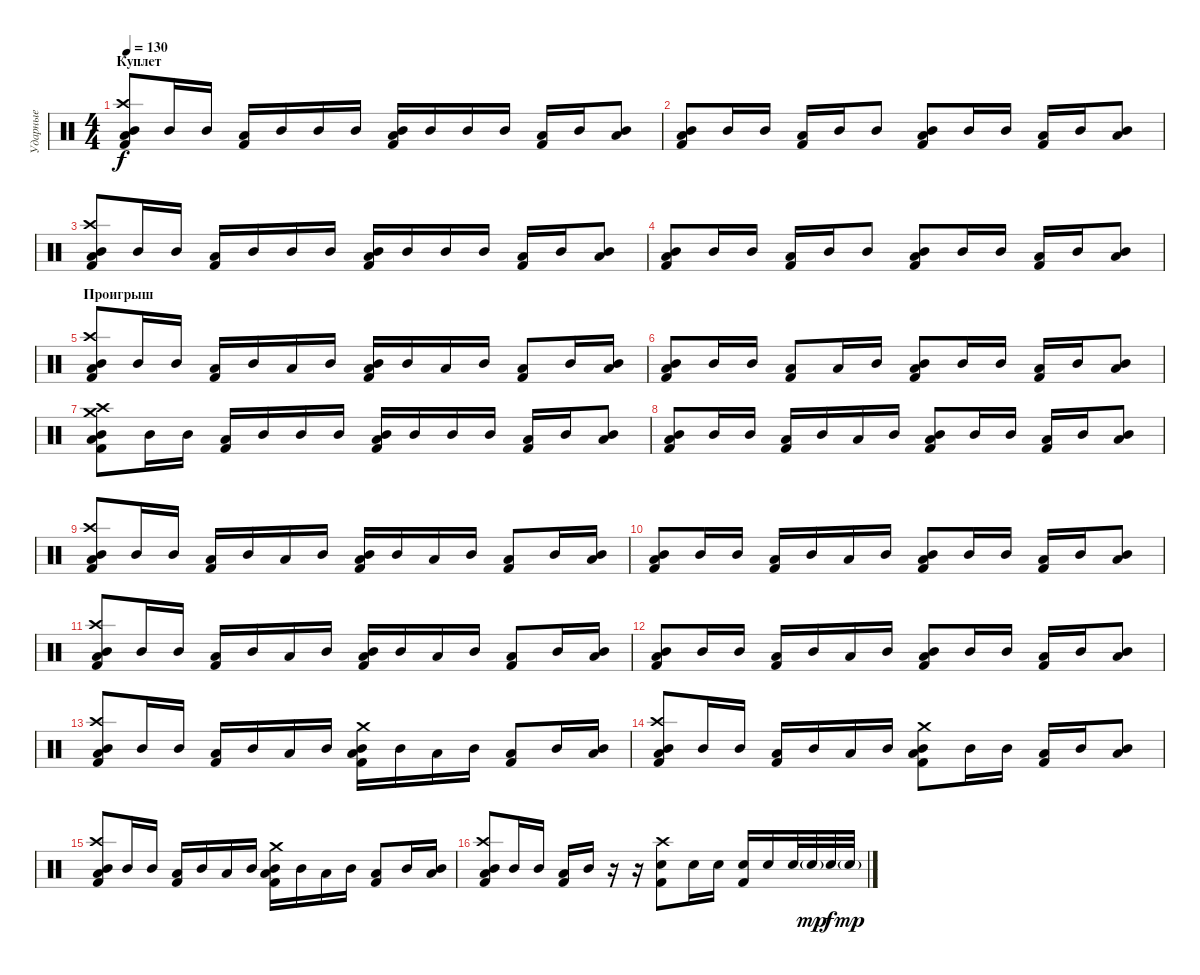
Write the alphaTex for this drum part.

\track ("Ударные" "Ударные") {instrument percussion}
\staff {score}
\articulation defaults
\ts (4 4)
\section ("" "Куплет")
\tempo 130
\clef neutral
\ks c
("Low Tom (hit)" "Mid Tom (hit)" "Crash high (hit)" "Kick (hit) 2").8{dy f volume 14} "Mid Tom (hit)".16 "Mid Tom (hit)".16 ("Low Tom (hit)" "Kick (hit) 2").16 "Mid Tom (hit)".16 "Mid Tom (hit)".16 "Mid Tom (hit)".16 ("Low Tom (hit)" "Mid Tom (hit)" "Kick (hit) 2").16 "Mid Tom (hit)".16 "Mid Tom (hit)".16 "Mid Tom (hit)".16 ("Low Tom (hit)" "Kick (hit) 2").16 "Mid Tom (hit)".16 ("Low Tom (hit)" "Mid Tom (hit)").8 |
("Low Tom (hit)" "Mid Tom (hit)" "Kick (hit) 2").8 "Mid Tom (hit)".16 "Mid Tom (hit)".16 ("Low Tom (hit)" "Kick (hit) 2").16 "Mid Tom (hit)".16 "Mid Tom (hit)".8 ("Low Tom (hit)" "Mid Tom (hit)" "Kick (hit) 2").8 "Mid Tom (hit)".16 "Mid Tom (hit)".16 ("Low Tom (hit)" "Kick (hit) 2").16 "Mid Tom (hit)".16 ("Low Tom (hit)" "Mid Tom (hit)").8 |
("Low Tom (hit)" "Mid Tom (hit)" "Crash high (hit)" "Kick (hit) 2").8{volume 13} "Mid Tom (hit)".16 "Mid Tom (hit)".16 ("Low Tom (hit)" "Kick (hit) 2").16 "Mid Tom (hit)".16 "Mid Tom (hit)".16 "Mid Tom (hit)".16 ("Low Tom (hit)" "Mid Tom (hit)" "Kick (hit) 2").16 "Mid Tom (hit)".16 "Mid Tom (hit)".16 "Mid Tom (hit)".16 ("Low Tom (hit)" "Kick (hit) 2").16 "Mid Tom (hit)".16 ("Low Tom (hit)" "Mid Tom (hit)").8 |
("Low Tom (hit)" "Mid Tom (hit)" "Kick (hit) 2").8 "Mid Tom (hit)".16 "Mid Tom (hit)".16 ("Low Tom (hit)" "Kick (hit) 2").16 "Mid Tom (hit)".16 "Mid Tom (hit)".8 ("Low Tom (hit)" "Mid Tom (hit)" "Kick (hit) 2").8 "Mid Tom (hit)".16 "Mid Tom (hit)".16 ("Low Tom (hit)" "Kick (hit) 2").16 "Mid Tom (hit)".16 ("Low Tom (hit)" "Mid Tom (hit)").8 |
\section ("" "Проигрыш")
("Low Tom (hit)" "Mid Tom (hit)" "Crash high (hit)" "Kick (hit) 2").8{volume 14} "Mid Tom (hit)".16 "Mid Tom (hit)".16 ("Low Tom (hit)" "Kick (hit) 2").16 "Mid Tom (hit)".16 "Low Tom (hit)".16 "Mid Tom (hit)".16 ("Low Tom (hit)" "Mid Tom (hit)" "Kick (hit) 2").16 "Mid Tom (hit)".16 "Low Tom (hit)".16 "Mid Tom (hit)".16 ("Low Tom (hit)" "Kick (hit) 2").8 "Mid Tom (hit)".16 ("Low Tom (hit)" "Mid Tom (hit)").16 |
("Low Tom (hit)" "Mid Tom (hit)" "Kick (hit) 2").8 "Mid Tom (hit)".16 "Mid Tom (hit)".16 ("Low Tom (hit)" "Kick (hit) 2").8 "Low Tom (hit)".16 "Mid Tom (hit)".16 ("Low Tom (hit)" "Mid Tom (hit)" "Kick (hit) 2").8 "Mid Tom (hit)".16 "Mid Tom (hit)".16 ("Low Tom (hit)" "Kick (hit) 2").16 "Mid Tom (hit)".16 ("Low Tom (hit)" "Mid Tom (hit)").8 |
("Low Tom (hit)" "Mid Tom (hit)" "Crash high (hit)" "Crash medium (hit)" "Kick (hit) 2").8{volume 14} "Mid Tom (hit)".16 "Mid Tom (hit)".16 ("Low Tom (hit)" "Kick (hit) 2").16 "Mid Tom (hit)".16 "Mid Tom (hit)".16 "Mid Tom (hit)".16 ("Low Tom (hit)" "Mid Tom (hit)" "Kick (hit) 2").16 "Mid Tom (hit)".16 "Mid Tom (hit)".16 "Mid Tom (hit)".16 ("Low Tom (hit)" "Kick (hit) 2").16 "Mid Tom (hit)".16 ("Low Tom (hit)" "Mid Tom (hit)").8 |
("Low Tom (hit)" "Mid Tom (hit)" "Kick (hit) 2").8 "Mid Tom (hit)".16 "Mid Tom (hit)".16 ("Low Tom (hit)" "Kick (hit) 2").16 "Mid Tom (hit)".16 "Low Tom (hit)".16 "Mid Tom (hit)".16 ("Low Tom (hit)" "Mid Tom (hit)" "Kick (hit) 2").8 "Mid Tom (hit)".16 "Mid Tom (hit)".16 ("Low Tom (hit)" "Kick (hit) 2").16 "Mid Tom (hit)".16 ("Low Tom (hit)" "Mid Tom (hit)").8 |
("Low Tom (hit)" "Mid Tom (hit)" "Crash high (hit)" "Kick (hit) 2").8{volume 14} "Mid Tom (hit)".16 "Mid Tom (hit)".16 ("Low Tom (hit)" "Kick (hit) 2").16 "Mid Tom (hit)".16 "Low Tom (hit)".16 "Mid Tom (hit)".16 ("Low Tom (hit)" "Mid Tom (hit)" "Kick (hit) 2").16 "Mid Tom (hit)".16 "Low Tom (hit)".16 "Mid Tom (hit)".16 ("Low Tom (hit)" "Kick (hit) 2").8 "Mid Tom (hit)".16 ("Low Tom (hit)" "Mid Tom (hit)").16 |
("Low Tom (hit)" "Mid Tom (hit)" "Kick (hit) 2").8 "Mid Tom (hit)".16 "Mid Tom (hit)".16 ("Low Tom (hit)" "Kick (hit) 2").16 "Mid Tom (hit)".16 "Low Tom (hit)".16 "Mid Tom (hit)".16 ("Low Tom (hit)" "Mid Tom (hit)" "Kick (hit) 2").8 "Mid Tom (hit)".16 "Mid Tom (hit)".16 ("Low Tom (hit)" "Kick (hit) 2").16 "Mid Tom (hit)".16 ("Low Tom (hit)" "Mid Tom (hit)").8 |
("Low Tom (hit)" "Mid Tom (hit)" "Crash high (hit)" "Kick (hit) 2").8{volume 14} "Mid Tom (hit)".16 "Mid Tom (hit)".16 ("Low Tom (hit)" "Kick (hit) 2").16 "Mid Tom (hit)".16 "Low Tom (hit)".16 "Mid Tom (hit)".16 ("Low Tom (hit)" "Mid Tom (hit)" "Kick (hit) 2").16 "Mid Tom (hit)".16 "Low Tom (hit)".16 "Mid Tom (hit)".16 ("Low Tom (hit)" "Kick (hit) 2").8 "Mid Tom (hit)".16 ("Low Tom (hit)" "Mid Tom (hit)").16 |
("Low Tom (hit)" "Mid Tom (hit)" "Kick (hit) 2").8 "Mid Tom (hit)".16 "Mid Tom (hit)".16 ("Low Tom (hit)" "Kick (hit) 2").16 "Mid Tom (hit)".16 "Low Tom (hit)".16 "Mid Tom (hit)".16 ("Low Tom (hit)" "Mid Tom (hit)" "Kick (hit) 2").8 "Mid Tom (hit)".16 "Mid Tom (hit)".16 ("Low Tom (hit)" "Kick (hit) 2").16 "Mid Tom (hit)".16 ("Low Tom (hit)" "Mid Tom (hit)").8 |
("Low Tom (hit)" "Mid Tom (hit)" "Crash high (hit)" "Kick (hit) 2").8{volume 14} "Mid Tom (hit)".16 "Mid Tom (hit)".16 ("Low Tom (hit)" "Kick (hit) 2").16 "Mid Tom (hit)".16 "Low Tom (hit)".16 "Mid Tom (hit)".16 ("Low Tom (hit)" "Mid Tom (hit)" "Crash medium (hit)" "Kick (hit) 2").16 "Mid Tom (hit)".16 "Low Tom (hit)".16 "Mid Tom (hit)".16 ("Low Tom (hit)" "Kick (hit) 2").8 "Mid Tom (hit)".16 ("Low Tom (hit)" "Mid Tom (hit)").16 |
("Low Tom (hit)" "Mid Tom (hit)" "Crash high (hit)" "Kick (hit) 2").8 "Mid Tom (hit)".16 "Mid Tom (hit)".16 ("Low Tom (hit)" "Kick (hit) 2").16 "Mid Tom (hit)".16 "Low Tom (hit)".16 "Mid Tom (hit)".16 ("Low Tom (hit)" "Mid Tom (hit)" "Crash medium (hit)" "Kick (hit) 2").8 "Mid Tom (hit)".16 "Mid Tom (hit)".16 ("Low Tom (hit)" "Kick (hit) 2").16 "Mid Tom (hit)".16 ("Low Tom (hit)" "Mid Tom (hit)").8 |
("Low Tom (hit)" "Mid Tom (hit)" "Crash high (hit)" "Kick (hit) 2").8{volume 14} "Mid Tom (hit)".16 "Mid Tom (hit)".16 ("Low Tom (hit)" "Kick (hit) 2").16 "Mid Tom (hit)".16 "Low Tom (hit)".16 "Mid Tom (hit)".16 ("Low Tom (hit)" "Mid Tom (hit)" "Crash medium (hit)" "Kick (hit) 2").16 "Mid Tom (hit)".16 "Low Tom (hit)".16 "Mid Tom (hit)".16 ("Low Tom (hit)" "Kick (hit) 2").8 "Mid Tom (hit)".16 ("Low Tom (hit)" "Mid Tom (hit)").16 |
("Low Tom (hit)" "Mid Tom (hit)" "Crash high (hit)" "Kick (hit) 2").8 "Mid Tom (hit)".16 "Mid Tom (hit)".16 ("Low Tom (hit)" "Kick (hit) 2").16 "Mid Tom (hit)".16 r.16 r.16 ("Electric Snare (hit)" "Crash high (hit)" "Kick (hit) 2").8 "Electric Snare (hit)".16 "Electric Snare (hit)".16 ("Electric Snare (hit)" "Kick (hit) 2").16 "Electric Snare (hit)".16 "Electric Snare (hit)".32 "Electric Snare (hit)"{g}.32{dy mp} "Electric Snare (hit)".32{dy f} "Electric Snare (hit)"{g}.32{dy mp}
